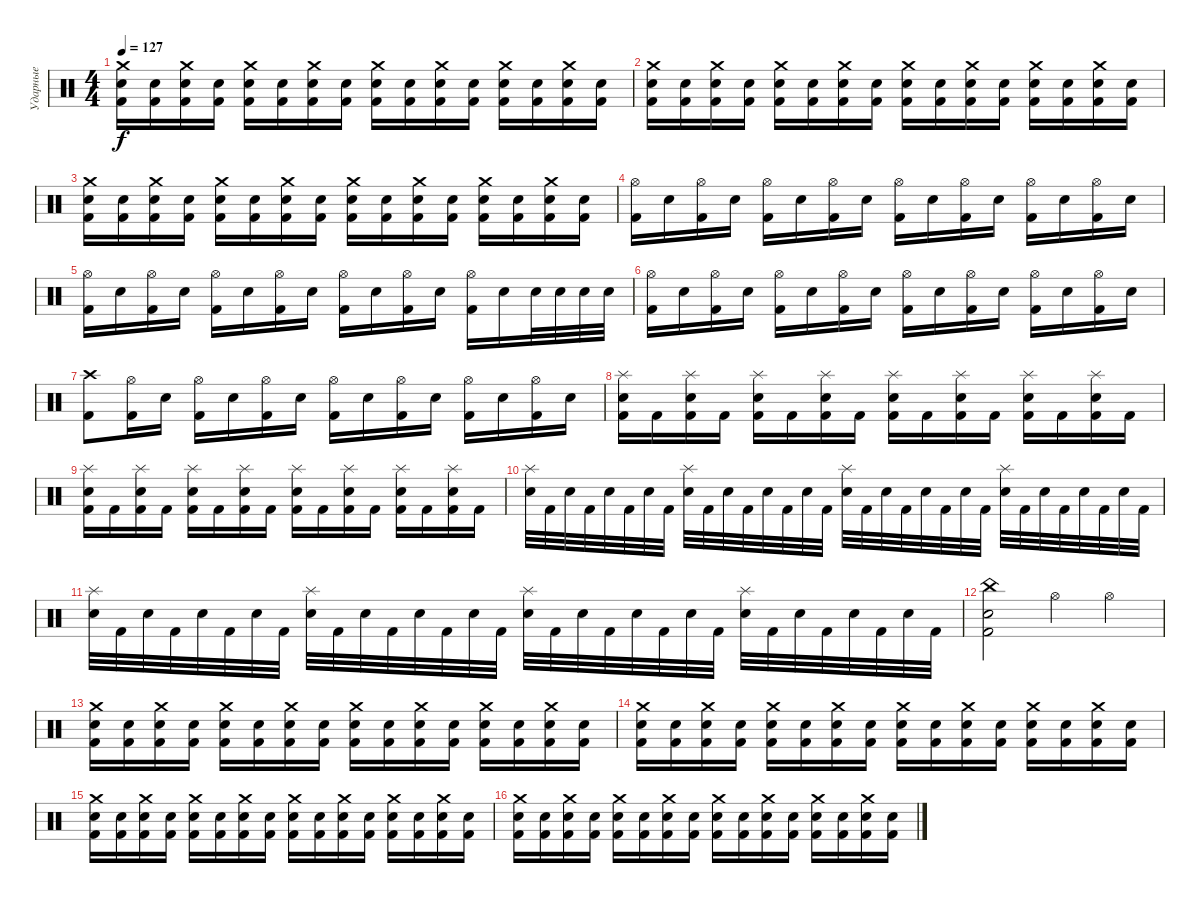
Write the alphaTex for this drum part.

\track ("Ударные" "Ударные") {instrument percussion bank 1}
\staff {score}
\articulation defaults
\ts (4 4)
\tempo 127
\clef neutral
\ks c
("Crash medium (hit)" "Electric Snare (hit)" "Kick (hit) 2").16{dy f} ("Electric Snare (hit)" "Kick (hit) 2").16 ("Crash medium (hit)" "Electric Snare (hit)" "Kick (hit) 2").16 ("Electric Snare (hit)" "Kick (hit) 2").16 ("Crash medium (hit)" "Electric Snare (hit)" "Kick (hit) 2").16 ("Electric Snare (hit)" "Kick (hit) 2").16 ("Crash medium (hit)" "Electric Snare (hit)" "Kick (hit) 2").16 ("Electric Snare (hit)" "Kick (hit) 2").16 ("Crash medium (hit)" "Electric Snare (hit)" "Kick (hit) 2").16 ("Electric Snare (hit)" "Kick (hit) 2").16 ("Crash medium (hit)" "Electric Snare (hit)" "Kick (hit) 2").16 ("Electric Snare (hit)" "Kick (hit) 2").16 ("Crash medium (hit)" "Electric Snare (hit)" "Kick (hit) 2").16 ("Electric Snare (hit)" "Kick (hit) 2").16 ("Crash medium (hit)" "Electric Snare (hit)" "Kick (hit) 2").16 ("Electric Snare (hit)" "Kick (hit) 2").16 |
("Crash medium (hit)" "Electric Snare (hit)" "Kick (hit) 2").16 ("Electric Snare (hit)" "Kick (hit) 2").16 ("Crash medium (hit)" "Electric Snare (hit)" "Kick (hit) 2").16 ("Electric Snare (hit)" "Kick (hit) 2").16 ("Crash medium (hit)" "Electric Snare (hit)" "Kick (hit) 2").16 ("Electric Snare (hit)" "Kick (hit) 2").16 ("Crash medium (hit)" "Electric Snare (hit)" "Kick (hit) 2").16 ("Electric Snare (hit)" "Kick (hit) 2").16 ("Crash medium (hit)" "Electric Snare (hit)" "Kick (hit) 2").16 ("Electric Snare (hit)" "Kick (hit) 2").16 ("Crash medium (hit)" "Electric Snare (hit)" "Kick (hit) 2").16 ("Electric Snare (hit)" "Kick (hit) 2").16 ("Crash medium (hit)" "Electric Snare (hit)" "Kick (hit) 2").16 ("Electric Snare (hit)" "Kick (hit) 2").16 ("Crash medium (hit)" "Electric Snare (hit)" "Kick (hit) 2").16 ("Electric Snare (hit)" "Kick (hit) 2").16 |
("Crash medium (hit)" "Electric Snare (hit)" "Kick (hit) 2").16 ("Electric Snare (hit)" "Kick (hit) 2").16 ("Crash medium (hit)" "Electric Snare (hit)" "Kick (hit) 2").16 ("Electric Snare (hit)" "Kick (hit) 2").16 ("Crash medium (hit)" "Electric Snare (hit)" "Kick (hit) 2").16 ("Electric Snare (hit)" "Kick (hit) 2").16 ("Crash medium (hit)" "Electric Snare (hit)" "Kick (hit) 2").16 ("Electric Snare (hit)" "Kick (hit) 2").16 ("Crash medium (hit)" "Electric Snare (hit)" "Kick (hit) 2").16 ("Electric Snare (hit)" "Kick (hit) 2").16 ("Crash medium (hit)" "Electric Snare (hit)" "Kick (hit) 2").16 ("Electric Snare (hit)" "Kick (hit) 2").16 ("Crash medium (hit)" "Electric Snare (hit)" "Kick (hit) 2").16 ("Electric Snare (hit)" "Kick (hit) 2").16 ("Crash medium (hit)" "Electric Snare (hit)" "Kick (hit) 2").16 ("Electric Snare (hit)" "Kick (hit) 2").16 |
("Hi-Hat (open)" "Kick (hit) 2").16 "Electric Snare (hit)".16 ("Hi-Hat (open)" "Kick (hit) 2").16 "Electric Snare (hit)".16 ("Hi-Hat (open)" "Kick (hit) 2").16 "Electric Snare (hit)".16 ("Hi-Hat (open)" "Kick (hit) 2").16 "Electric Snare (hit)".16 ("Hi-Hat (open)" "Kick (hit) 2").16 "Electric Snare (hit)".16 ("Hi-Hat (open)" "Kick (hit) 2").16 "Electric Snare (hit)".16 ("Hi-Hat (open)" "Kick (hit) 2").16 "Electric Snare (hit)".16 ("Hi-Hat (open)" "Kick (hit) 2").16 "Electric Snare (hit)".16 |
("Hi-Hat (open)" "Kick (hit) 2").16 "Electric Snare (hit)".16 ("Hi-Hat (open)" "Kick (hit) 2").16 "Electric Snare (hit)".16 ("Hi-Hat (open)" "Kick (hit) 2").16 "Electric Snare (hit)".16 ("Hi-Hat (open)" "Kick (hit) 2").16 "Electric Snare (hit)".16 ("Hi-Hat (open)" "Kick (hit) 2").16 "Electric Snare (hit)".16 ("Hi-Hat (open)" "Kick (hit) 2").16 "Electric Snare (hit)".16 ("Hi-Hat (open)" "Kick (hit) 2").16 "Electric Snare (hit)".16 "Electric Snare (hit)".32 "Electric Snare (hit)".32 "Electric Snare (hit)".32 "Electric Snare (hit)".32 |
("Hi-Hat (open)" "Kick (hit) 2").16 "Electric Snare (hit)".16 ("Hi-Hat (open)" "Kick (hit) 2").16 "Electric Snare (hit)".16 ("Hi-Hat (open)" "Kick (hit) 2").16 "Electric Snare (hit)".16 ("Hi-Hat (open)" "Kick (hit) 2").16 "Electric Snare (hit)".16 ("Hi-Hat (open)" "Kick (hit) 2").16 "Electric Snare (hit)".16 ("Hi-Hat (open)" "Kick (hit) 2").16 "Electric Snare (hit)".16 ("Hi-Hat (open)" "Kick (hit) 2").16 "Electric Snare (hit)".16 ("Hi-Hat (open)" "Kick (hit) 2").16 "Electric Snare (hit)".16 |
("Crash high (hit)" "Kick (hit) 2").8 ("Hi-Hat (open)" "Kick (hit) 2").16 "Electric Snare (hit)".16 ("Hi-Hat (open)" "Kick (hit) 2").16 "Electric Snare (hit)".16 ("Hi-Hat (open)" "Kick (hit) 2").16 "Electric Snare (hit)".16 ("Hi-Hat (open)" "Kick (hit) 2").16 "Electric Snare (hit)".16 ("Hi-Hat (open)" "Kick (hit) 2").16 "Electric Snare (hit)".16 ("Hi-Hat (open)" "Kick (hit) 2").16 "Electric Snare (hit)".16 ("Hi-Hat (open)" "Kick (hit) 2").16 "Electric Snare (hit)".16 |
("Splash (hit)" "Electric Snare (hit)" "Kick (hit) 2").16 "Kick (hit) 2".16 ("Splash (hit)" "Electric Snare (hit)" "Kick (hit) 2").16 "Kick (hit) 2".16 ("Splash (hit)" "Electric Snare (hit)" "Kick (hit) 2").16 "Kick (hit) 2".16 ("Splash (hit)" "Electric Snare (hit)" "Kick (hit) 2").16 "Kick (hit) 2".16 ("Splash (hit)" "Electric Snare (hit)" "Kick (hit) 2").16 "Kick (hit) 2".16 ("Splash (hit)" "Electric Snare (hit)" "Kick (hit) 2").16 "Kick (hit) 2".16 ("Splash (hit)" "Electric Snare (hit)" "Kick (hit) 2").16 "Kick (hit) 2".16 ("Splash (hit)" "Electric Snare (hit)" "Kick (hit) 2").16 "Kick (hit) 2".16 |
("Splash (hit)" "Electric Snare (hit)" "Kick (hit) 2").16 "Kick (hit) 2".16 ("Splash (hit)" "Electric Snare (hit)" "Kick (hit) 2").16 "Kick (hit) 2".16 ("Splash (hit)" "Electric Snare (hit)" "Kick (hit) 2").16 "Kick (hit) 2".16 ("Splash (hit)" "Electric Snare (hit)" "Kick (hit) 2").16 "Kick (hit) 2".16 ("Splash (hit)" "Electric Snare (hit)" "Kick (hit) 2").16 "Kick (hit) 2".16 ("Splash (hit)" "Electric Snare (hit)" "Kick (hit) 2").16 "Kick (hit) 2".16 ("Splash (hit)" "Electric Snare (hit)" "Kick (hit) 2").16 "Kick (hit) 2".16 ("Splash (hit)" "Electric Snare (hit)" "Kick (hit) 2").16 "Kick (hit) 2".16 |
("Splash (hit)" "Electric Snare (hit)").32 "Kick (hit) 2".32 "Electric Snare (hit)".32 "Kick (hit) 2".32 "Electric Snare (hit)".32 "Kick (hit) 2".32 "Electric Snare (hit)".32 "Kick (hit) 2".32 ("Splash (hit)" "Electric Snare (hit)").32 "Kick (hit) 2".32 "Electric Snare (hit)".32 "Kick (hit) 2".32 "Electric Snare (hit)".32 "Kick (hit) 2".32 "Electric Snare (hit)".32 "Kick (hit) 2".32 ("Splash (hit)" "Electric Snare (hit)").32 "Kick (hit) 2".32 "Electric Snare (hit)".32 "Kick (hit) 2".32 "Electric Snare (hit)".32 "Kick (hit) 2".32 "Electric Snare (hit)".32 "Kick (hit) 2".32 ("Splash (hit)" "Electric Snare (hit)").32 "Kick (hit) 2".32 "Electric Snare (hit)".32 "Kick (hit) 2".32 "Electric Snare (hit)".32 "Kick (hit) 2".32 "Electric Snare (hit)".32 "Kick (hit) 2".32 |
("Splash (hit)" "Electric Snare (hit)").32 "Kick (hit) 2".32 "Electric Snare (hit)".32 "Kick (hit) 2".32 "Electric Snare (hit)".32 "Kick (hit) 2".32 "Electric Snare (hit)".32 "Kick (hit) 2".32 ("Splash (hit)" "Electric Snare (hit)").32 "Kick (hit) 2".32 "Electric Snare (hit)".32 "Kick (hit) 2".32 "Electric Snare (hit)".32 "Kick (hit) 2".32 "Electric Snare (hit)".32 "Kick (hit) 2".32 ("Splash (hit)" "Electric Snare (hit)").32 "Kick (hit) 2".32 "Electric Snare (hit)".32 "Kick (hit) 2".32 "Electric Snare (hit)".32 "Kick (hit) 2".32 "Electric Snare (hit)".32 "Kick (hit) 2".32 ("Splash (hit)" "Electric Snare (hit)").32 "Kick (hit) 2".32 "Electric Snare (hit)".32 "Kick (hit) 2".32 "Electric Snare (hit)".32 "Kick (hit) 2".32 "Electric Snare (hit)".32 "Kick (hit) 2".32 |
("China (hit)" "Electric Snare (hit)" "Kick (hit) 2").2 "Hi-Hat (open)".4 "Hi-Hat (open)".4 |
("Crash medium (hit)" "Electric Snare (hit)" "Kick (hit) 2").16 ("Electric Snare (hit)" "Kick (hit) 2").16 ("Crash medium (hit)" "Electric Snare (hit)" "Kick (hit) 2").16 ("Electric Snare (hit)" "Kick (hit) 2").16 ("Crash medium (hit)" "Electric Snare (hit)" "Kick (hit) 2").16 ("Electric Snare (hit)" "Kick (hit) 2").16 ("Crash medium (hit)" "Electric Snare (hit)" "Kick (hit) 2").16 ("Electric Snare (hit)" "Kick (hit) 2").16 ("Crash medium (hit)" "Electric Snare (hit)" "Kick (hit) 2").16 ("Electric Snare (hit)" "Kick (hit) 2").16 ("Crash medium (hit)" "Electric Snare (hit)" "Kick (hit) 2").16 ("Electric Snare (hit)" "Kick (hit) 2").16 ("Crash medium (hit)" "Electric Snare (hit)" "Kick (hit) 2").16 ("Electric Snare (hit)" "Kick (hit) 2").16 ("Crash medium (hit)" "Electric Snare (hit)" "Kick (hit) 2").16 ("Electric Snare (hit)" "Kick (hit) 2").16 |
("Crash medium (hit)" "Electric Snare (hit)" "Kick (hit) 2").16 ("Electric Snare (hit)" "Kick (hit) 2").16 ("Crash medium (hit)" "Electric Snare (hit)" "Kick (hit) 2").16 ("Electric Snare (hit)" "Kick (hit) 2").16 ("Crash medium (hit)" "Electric Snare (hit)" "Kick (hit) 2").16 ("Electric Snare (hit)" "Kick (hit) 2").16 ("Crash medium (hit)" "Electric Snare (hit)" "Kick (hit) 2").16 ("Electric Snare (hit)" "Kick (hit) 2").16 ("Crash medium (hit)" "Electric Snare (hit)" "Kick (hit) 2").16 ("Electric Snare (hit)" "Kick (hit) 2").16 ("Crash medium (hit)" "Electric Snare (hit)" "Kick (hit) 2").16 ("Electric Snare (hit)" "Kick (hit) 2").16 ("Crash medium (hit)" "Electric Snare (hit)" "Kick (hit) 2").16 ("Electric Snare (hit)" "Kick (hit) 2").16 ("Crash medium (hit)" "Electric Snare (hit)" "Kick (hit) 2").16 ("Electric Snare (hit)" "Kick (hit) 2").16 |
("Crash medium (hit)" "Electric Snare (hit)" "Kick (hit) 2").16 ("Electric Snare (hit)" "Kick (hit) 2").16 ("Crash medium (hit)" "Electric Snare (hit)" "Kick (hit) 2").16 ("Electric Snare (hit)" "Kick (hit) 2").16 ("Crash medium (hit)" "Electric Snare (hit)" "Kick (hit) 2").16 ("Electric Snare (hit)" "Kick (hit) 2").16 ("Crash medium (hit)" "Electric Snare (hit)" "Kick (hit) 2").16 ("Electric Snare (hit)" "Kick (hit) 2").16 ("Crash medium (hit)" "Electric Snare (hit)" "Kick (hit) 2").16 ("Electric Snare (hit)" "Kick (hit) 2").16 ("Crash medium (hit)" "Electric Snare (hit)" "Kick (hit) 2").16 ("Electric Snare (hit)" "Kick (hit) 2").16 ("Crash medium (hit)" "Electric Snare (hit)" "Kick (hit) 2").16 ("Electric Snare (hit)" "Kick (hit) 2").16 ("Crash medium (hit)" "Electric Snare (hit)" "Kick (hit) 2").16 ("Electric Snare (hit)" "Kick (hit) 2").16 |
("Crash medium (hit)" "Electric Snare (hit)" "Kick (hit) 2").16 ("Electric Snare (hit)" "Kick (hit) 2").16 ("Crash medium (hit)" "Electric Snare (hit)" "Kick (hit) 2").16 ("Electric Snare (hit)" "Kick (hit) 2").16 ("Crash medium (hit)" "Electric Snare (hit)" "Kick (hit) 2").16 ("Electric Snare (hit)" "Kick (hit) 2").16 ("Crash medium (hit)" "Electric Snare (hit)" "Kick (hit) 2").16 ("Electric Snare (hit)" "Kick (hit) 2").16 ("Crash medium (hit)" "Electric Snare (hit)" "Kick (hit) 2").16 ("Electric Snare (hit)" "Kick (hit) 2").16 ("Crash medium (hit)" "Electric Snare (hit)" "Kick (hit) 2").16 ("Electric Snare (hit)" "Kick (hit) 2").16 ("Crash medium (hit)" "Electric Snare (hit)" "Kick (hit) 2").16 ("Electric Snare (hit)" "Kick (hit) 2").16 ("Crash medium (hit)" "Electric Snare (hit)" "Kick (hit) 2").16 ("Electric Snare (hit)" "Kick (hit) 2").16
